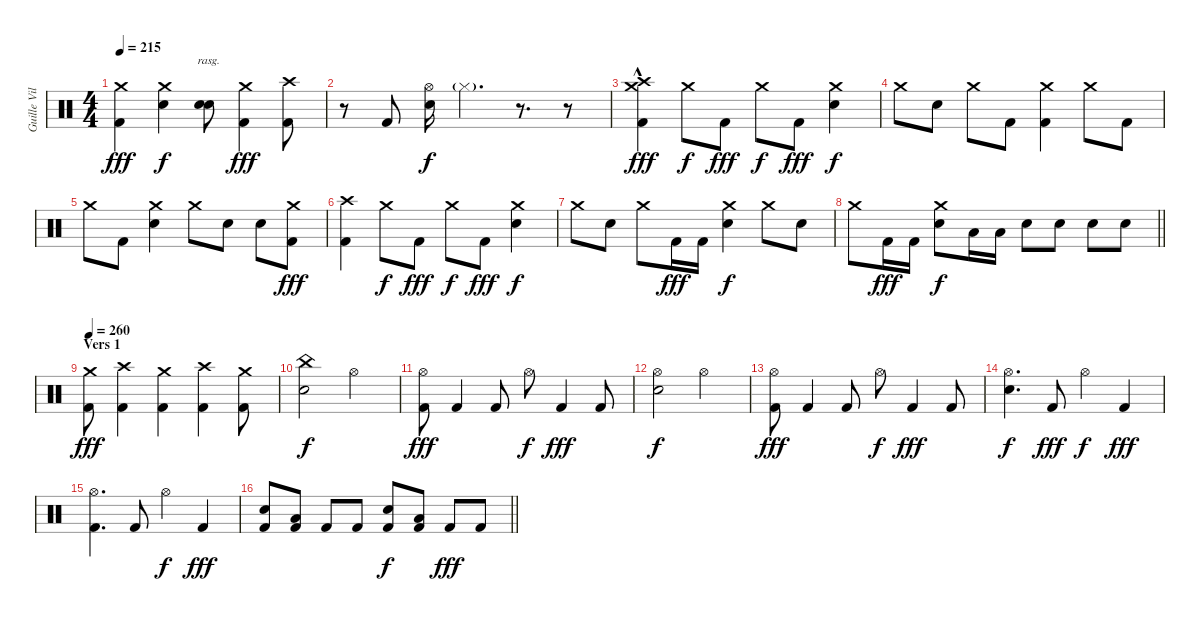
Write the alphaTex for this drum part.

\track ("Guille Vila" "Guille Vil") {instrument percussion}
\staff {score}
\articulation defaults
\ts (4 4)
\tempo 215
\clef neutral
\ks c
("Crash medium (hit)" "Kick (hit) 2").4{dy fff} ("Crash medium (hit)" "Snare (hit) 2").4{dy f} ("Snare (hit) 2" "Snare (hit) 2").8{bd 240 rasg ii} ("Crash medium (hit)" "Kick (hit) 2").4{dy fff} ("Crash high (hit)" "Kick (hit) 2").8 |
r.8 "Kick (hit) 2".8 ("Hi-Hat (open)" "Snare (hit) 2").16{dy f} "Hi-Hat (closed)"{g}.4{d} r.8{d} r.8 |
("Crash high (hit)"{hac} "Crash medium (hit)"{hac} "Kick (hit) 2"{hac}).4{dy fff} "Crash medium (hit)".8{dy f} "Kick (hit) 2".8{dy fff} "Crash medium (hit)".8{dy f} "Kick (hit) 2".8{dy fff} ("Crash medium (hit)" "Snare (hit) 2").4{dy f} |
"Crash medium (hit)".8 "Snare (hit) 2".8 "Crash medium (hit)".8 "Kick (hit) 2".8 ("Crash medium (hit)" "Kick (hit) 2").4 "Crash medium (hit)".8 "Kick (hit) 2".8 |
"Crash medium (hit)".8 "Kick (hit) 2".8 ("Crash medium (hit)" "Snare (hit) 2").4 "Crash medium (hit)".8 "Snare (hit) 2".8 "Snare (hit) 2".8 ("Crash medium (hit)" "Kick (hit) 2").8{dy fff} |
("Crash high (hit)" "Kick (hit) 2").4 "Crash medium (hit)".8{dy f} "Kick (hit) 2".8{dy fff} "Crash medium (hit)".8{dy f} "Kick (hit) 2".8{dy fff} ("Crash medium (hit)" "Snare (hit) 2").4{dy f} |
"Crash medium (hit)".8 "Snare (hit) 2".8 "Crash medium (hit)".8 "Kick (hit) 2".16{dy fff} "Kick (hit) 2".16 ("Crash medium (hit)" "Snare (hit) 2").4{dy f} "Crash medium (hit)".8 "Snare (hit) 2".8 |
\barLineRight lightlight "Crash medium (hit)".8 "Kick (hit) 2".16{dy fff} "Kick (hit) 2".16
("Crash medium (hit)" "Snare (hit) 2").8{dy f} "Low Tom (hit)".16 "Low Tom (hit)".16 "Snare (hit) 2".8 "Snare (hit) 2".8 "Snare (hit) 2".8 "Snare (hit) 2".8 |
\section ("" "Vers 1")
\tempo 260
("Crash medium (hit)" "Kick (hit) 2").8{dy fff} ("Crash high (hit)" "Kick (hit) 2").4 ("Crash medium (hit)" "Kick (hit) 2").4 ("Crash high (hit)" "Kick (hit) 2").4 ("Crash medium (hit)" "Kick (hit) 2").8 |
("China (hit)" "Snare (hit) 2").2{dy f} "Hi-Hat (open)".2 |
("Hi-Hat (open)" "Kick (hit) 2").8{dy fff} "Kick (hit) 2".4 "Kick (hit) 2".8 "Hi-Hat (open)".8{dy f} "Kick (hit) 2".4{dy fff} "Kick (hit) 2".8 |
("Hi-Hat (open)" "Snare (hit) 2").2{dy f} "Hi-Hat (open)".2 |
("Hi-Hat (open)" "Kick (hit) 2").8{dy fff} "Kick (hit) 2".4 "Kick (hit) 2".8 "Hi-Hat (open)".8{dy f} "Kick (hit) 2".4{dy fff} "Kick (hit) 2".8 |
("Hi-Hat (open)" "Snare (hit) 2").4{d dy f} "Kick (hit) 2".8{dy fff} "Hi-Hat (open)".4{dy f} "Kick (hit) 2".4{dy fff} |
("Hi-Hat (open)" "Kick (hit) 2").4{d} "Kick (hit) 2".8 "Hi-Hat (open)".4{dy f} "Kick (hit) 2".4{dy fff} |
\barLineRight lightlight
("Snare (hit) 2" "Kick (hit) 2").8 ("Low Tom (hit)" "Kick (hit) 2").8 "Kick (hit) 2".8 "Kick (hit) 2".8 ("Snare (hit) 2" "Kick (hit) 2").8{dy f} ("Low Tom (hit)" "Kick (hit) 2").8 "Kick (hit) 2".8{dy fff} "Kick (hit) 2".8
